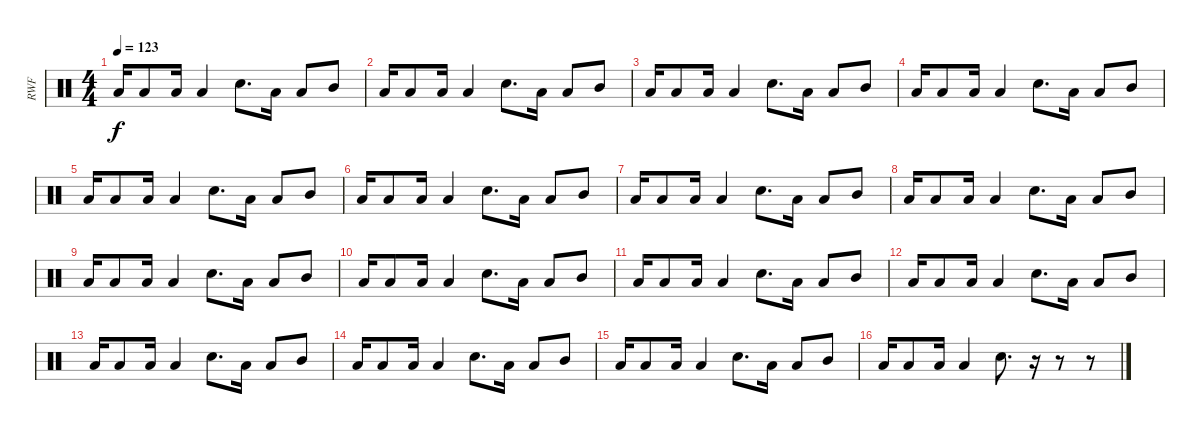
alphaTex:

\track ("RWF" "RWF") {instrument percussion}
\staff {score}
\articulation defaults
\ts (4 4)
\tempo 123
\clef neutral
\ks c "Low Tom (hit)".16{dy f} "Low Tom (hit)".8 "Low Tom (hit)".16 "Low Tom (hit)".4 "Electric Snare (hit)".8{d} "Low Tom (hit)".16 "Low Tom (hit)".8 "Mid Tom (hit)".8
|
"Low Tom (hit)".16 "Low Tom (hit)".8 "Low Tom (hit)".16 "Low Tom (hit)".4 "Electric Snare (hit)".8{d} "Low Tom (hit)".16 "Low Tom (hit)".8 "Mid Tom (hit)".8 |
"Low Tom (hit)".16 "Low Tom (hit)".8 "Low Tom (hit)".16 "Low Tom (hit)".4 "Electric Snare (hit)".8{d} "Low Tom (hit)".16 "Low Tom (hit)".8 "Mid Tom (hit)".8 |
"Low Tom (hit)".16 "Low Tom (hit)".8 "Low Tom (hit)".16 "Low Tom (hit)".4 "Electric Snare (hit)".8{d} "Low Tom (hit)".16 "Low Tom (hit)".8 "Mid Tom (hit)".8 |
"Low Tom (hit)".16 "Low Tom (hit)".8 "Low Tom (hit)".16 "Low Tom (hit)".4 "Electric Snare (hit)".8{d} "Low Tom (hit)".16 "Low Tom (hit)".8 "Mid Tom (hit)".8 |
"Low Tom (hit)".16 "Low Tom (hit)".8 "Low Tom (hit)".16 "Low Tom (hit)".4 "Electric Snare (hit)".8{d} "Low Tom (hit)".16 "Low Tom (hit)".8 "Mid Tom (hit)".8 |
"Low Tom (hit)".16 "Low Tom (hit)".8 "Low Tom (hit)".16 "Low Tom (hit)".4 "Electric Snare (hit)".8{d} "Low Tom (hit)".16 "Low Tom (hit)".8 "Mid Tom (hit)".8 |
"Low Tom (hit)".16 "Low Tom (hit)".8 "Low Tom (hit)".16 "Low Tom (hit)".4 "Electric Snare (hit)".8{d} "Low Tom (hit)".16 "Low Tom (hit)".8 "Mid Tom (hit)".8 |
"Low Tom (hit)".16 "Low Tom (hit)".8 "Low Tom (hit)".16 "Low Tom (hit)".4 "Electric Snare (hit)".8{d} "Low Tom (hit)".16 "Low Tom (hit)".8 "Mid Tom (hit)".8 |
"Low Tom (hit)".16 "Low Tom (hit)".8 "Low Tom (hit)".16 "Low Tom (hit)".4 "Electric Snare (hit)".8{d} "Low Tom (hit)".16 "Low Tom (hit)".8 "Mid Tom (hit)".8 |
"Low Tom (hit)".16 "Low Tom (hit)".8 "Low Tom (hit)".16 "Low Tom (hit)".4 "Electric Snare (hit)".8{d} "Low Tom (hit)".16 "Low Tom (hit)".8 "Mid Tom (hit)".8 |
"Low Tom (hit)".16 "Low Tom (hit)".8 "Low Tom (hit)".16 "Low Tom (hit)".4 "Electric Snare (hit)".8{d} "Low Tom (hit)".16 "Low Tom (hit)".8 "Mid Tom (hit)".8 |
"Low Tom (hit)".16 "Low Tom (hit)".8 "Low Tom (hit)".16 "Low Tom (hit)".4 "Electric Snare (hit)".8{d} "Low Tom (hit)".16 "Low Tom (hit)".8 "Mid Tom (hit)".8 |
"Low Tom (hit)".16 "Low Tom (hit)".8 "Low Tom (hit)".16 "Low Tom (hit)".4 "Electric Snare (hit)".8{d} "Low Tom (hit)".16 "Low Tom (hit)".8 "Mid Tom (hit)".8 |
"Low Tom (hit)".16 "Low Tom (hit)".8 "Low Tom (hit)".16 "Low Tom (hit)".4 "Electric Snare (hit)".8{d} "Low Tom (hit)".16 "Low Tom (hit)".8 "Mid Tom (hit)".8 |
"Low Tom (hit)".16 "Low Tom (hit)".8 "Low Tom (hit)".16 "Low Tom (hit)".4 "Electric Snare (hit)".8{d} r.16 r.8 r.8
